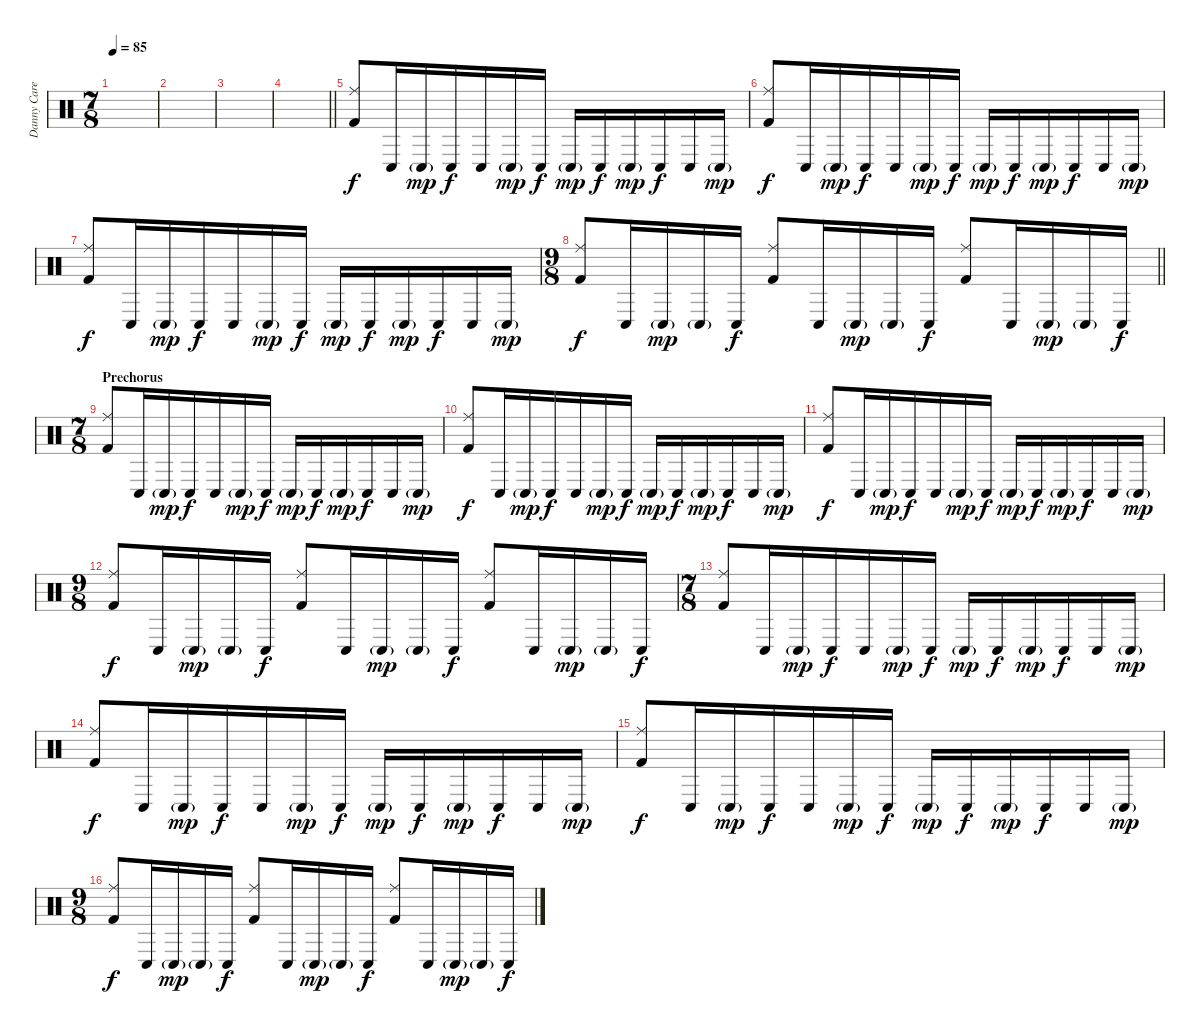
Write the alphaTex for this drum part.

\track ("Danny Carey" "Danny Care") {instrument percussion}
\staff {score}
\articulation defaults
\ts (7 8)
\tempo 85
\clef neutral
\ks c
|
|
|
\barLineRight lightlight
|
\section ("" "")
("Ride (middle)" "Kick (hit) 2").8{dy f} "Conga low (hit)".16 "Conga low (hit)"{g}.16{dy mp} "Conga low (hit)".16{dy f} "Conga low (hit)".16 "Conga low (hit)"{g}.16{dy mp} "Conga low (hit)".16{dy f} "Conga low (hit)"{g}.16{dy mp} "Conga low (hit)".16{dy f} "Conga low (hit)"{g}.16{dy mp} "Conga low (hit)".16{dy f} "Conga low (hit)".16 "Conga low (hit)"{g}.16{dy mp} |
("Ride (middle)" "Kick (hit) 2").8{dy f} "Conga low (hit)".16 "Conga low (hit)"{g}.16{dy mp} "Conga low (hit)".16{dy f} "Conga low (hit)".16 "Conga low (hit)"{g}.16{dy mp} "Conga low (hit)".16{dy f} "Conga low (hit)"{g}.16{dy mp} "Conga low (hit)".16{dy f} "Conga low (hit)"{g}.16{dy mp} "Conga low (hit)".16{dy f} "Conga low (hit)".16 "Conga low (hit)"{g}.16{dy mp} |
("Ride (middle)" "Kick (hit) 2").8{dy f} "Conga low (hit)".16 "Conga low (hit)"{g}.16{dy mp} "Conga low (hit)".16{dy f} "Conga low (hit)".16 "Conga low (hit)"{g}.16{dy mp} "Conga low (hit)".16{dy f} "Conga low (hit)"{g}.16{dy mp} "Conga low (hit)".16{dy f} "Conga low (hit)"{g}.16{dy mp} "Conga low (hit)".16{dy f} "Conga low (hit)".16 "Conga low (hit)"{g}.16{dy mp} |
\ts (9 8)
\barLineRight lightlight
("Ride (middle)" "Kick (hit) 2").8{dy f} "Conga low (hit)".16 "Conga low (hit)"{g}.16{dy mp} "Conga low (hit)"{g}.16 "Conga low (hit)".16{dy f} ("Ride (middle)" "Kick (hit) 2").8 "Conga low (hit)".16 "Conga low (hit)"{g}.16{dy mp} "Conga low (hit)"{g}.16 "Conga low (hit)".16{dy f} ("Ride (middle)" "Kick (hit) 2").8 "Conga low (hit)".16 "Conga low (hit)"{g}.16{dy mp} "Conga low (hit)"{g}.16 "Conga low (hit)".16{dy f} |
\ts (7 8)
\section ("" "Prechorus")
("Ride (middle)" "Kick (hit) 2").8 "Conga low (hit)".16 "Conga low (hit)"{g}.16{dy mp} "Conga low (hit)".16{dy f} "Conga low (hit)".16 "Conga low (hit)"{g}.16{dy mp} "Conga low (hit)".16{dy f} "Conga low (hit)"{g}.16{dy mp} "Conga low (hit)".16{dy f} "Conga low (hit)"{g}.16{dy mp} "Conga low (hit)".16{dy f} "Conga low (hit)".16 "Conga low (hit)"{g}.16{dy mp} |
("Ride (middle)" "Kick (hit) 2").8{dy f} "Conga low (hit)".16 "Conga low (hit)"{g}.16{dy mp} "Conga low (hit)".16{dy f} "Conga low (hit)".16 "Conga low (hit)"{g}.16{dy mp} "Conga low (hit)".16{dy f} "Conga low (hit)"{g}.16{dy mp} "Conga low (hit)".16{dy f} "Conga low (hit)"{g}.16{dy mp} "Conga low (hit)".16{dy f} "Conga low (hit)".16 "Conga low (hit)"{g}.16{dy mp} |
("Ride (middle)" "Kick (hit) 2").8{dy f} "Conga low (hit)".16 "Conga low (hit)"{g}.16{dy mp} "Conga low (hit)".16{dy f} "Conga low (hit)".16 "Conga low (hit)"{g}.16{dy mp} "Conga low (hit)".16{dy f} "Conga low (hit)"{g}.16{dy mp} "Conga low (hit)".16{dy f} "Conga low (hit)"{g}.16{dy mp} "Conga low (hit)".16{dy f} "Conga low (hit)".16 "Conga low (hit)"{g}.16{dy mp} |
\ts (9 8)
("Ride (middle)" "Kick (hit) 2").8{dy f} "Conga low (hit)".16 "Conga low (hit)"{g}.16{dy mp} "Conga low (hit)"{g}.16 "Conga low (hit)".16{dy f} ("Ride (middle)" "Kick (hit) 2").8 "Conga low (hit)".16 "Conga low (hit)"{g}.16{dy mp} "Conga low (hit)"{g}.16 "Conga low (hit)".16{dy f} ("Ride (middle)" "Kick (hit) 2").8 "Conga low (hit)".16 "Conga low (hit)"{g}.16{dy mp} "Conga low (hit)"{g}.16 "Conga low (hit)".16{dy f} |
\ts (7 8)
("Ride (middle)" "Kick (hit) 2").8 "Conga low (hit)".16 "Conga low (hit)"{g}.16{dy mp} "Conga low (hit)".16{dy f} "Conga low (hit)".16 "Conga low (hit)"{g}.16{dy mp} "Conga low (hit)".16{dy f} "Conga low (hit)"{g}.16{dy mp} "Conga low (hit)".16{dy f} "Conga low (hit)"{g}.16{dy mp} "Conga low (hit)".16{dy f} "Conga low (hit)".16 "Conga low (hit)"{g}.16{dy mp} |
("Ride (middle)" "Kick (hit) 2").8{dy f} "Conga low (hit)".16 "Conga low (hit)"{g}.16{dy mp} "Conga low (hit)".16{dy f} "Conga low (hit)".16 "Conga low (hit)"{g}.16{dy mp} "Conga low (hit)".16{dy f} "Conga low (hit)"{g}.16{dy mp} "Conga low (hit)".16{dy f} "Conga low (hit)"{g}.16{dy mp} "Conga low (hit)".16{dy f} "Conga low (hit)".16 "Conga low (hit)"{g}.16{dy mp} |
("Ride (middle)" "Kick (hit) 2").8{dy f} "Conga low (hit)".16 "Conga low (hit)"{g}.16{dy mp} "Conga low (hit)".16{dy f} "Conga low (hit)".16 "Conga low (hit)"{g}.16{dy mp} "Conga low (hit)".16{dy f} "Conga low (hit)"{g}.16{dy mp} "Conga low (hit)".16{dy f} "Conga low (hit)"{g}.16{dy mp} "Conga low (hit)".16{dy f} "Conga low (hit)".16 "Conga low (hit)"{g}.16{dy mp} |
\ts (9 8)
("Ride (middle)" "Kick (hit) 2").8{dy f} "Conga low (hit)".16 "Conga low (hit)"{g}.16{dy mp} "Conga low (hit)"{g}.16 "Conga low (hit)".16{dy f} ("Ride (middle)" "Kick (hit) 2").8 "Conga low (hit)".16 "Conga low (hit)"{g}.16{dy mp} "Conga low (hit)"{g}.16 "Conga low (hit)".16{dy f} ("Ride (middle)" "Kick (hit) 2").8 "Conga low (hit)".16 "Conga low (hit)"{g}.16{dy mp} "Conga low (hit)"{g}.16 "Conga low (hit)".16{dy f}
